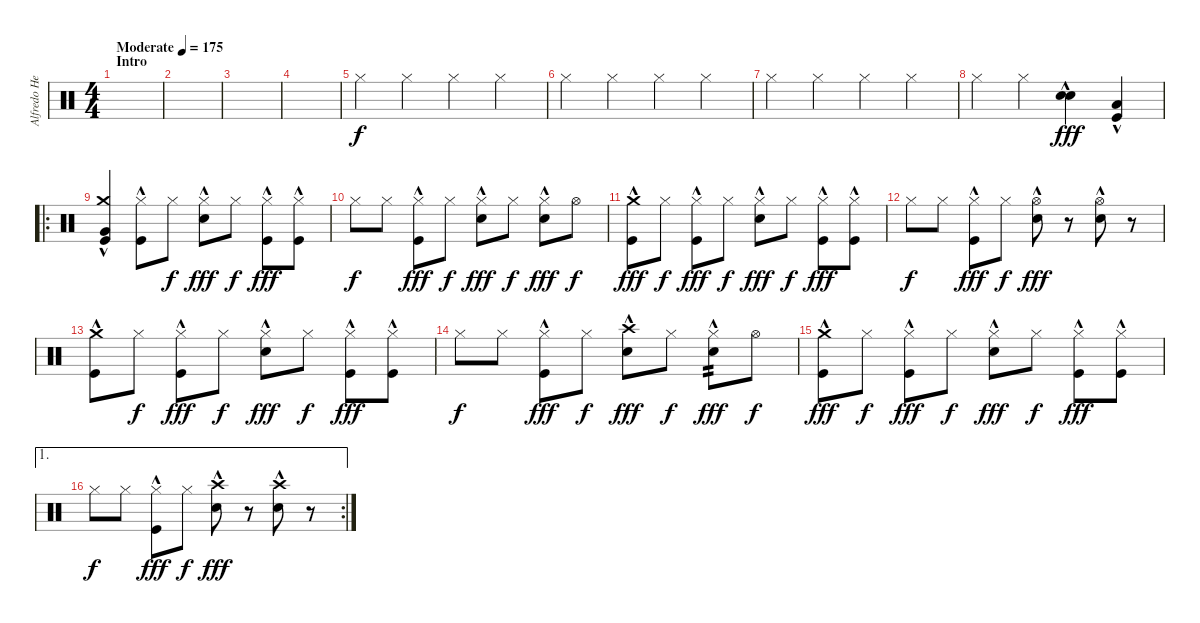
\track ("Alfredo Hernández - Drums" "Alfredo He") {instrument percussion}
\staff {score}
\articulation defaults
\ts (4 4)
\section ("" "Intro")
\tempo (175 "Moderate")
\clef neutral
\ks c
|
|
|
|
"Hi-Hat (closed)".4 "Hi-Hat (closed)".4 "Hi-Hat (closed)".4 "Hi-Hat (closed)".4 |
"Hi-Hat (closed)".4 "Hi-Hat (closed)".4 "Hi-Hat (closed)".4 "Hi-Hat (closed)".4 |
"Hi-Hat (closed)".4 "Hi-Hat (closed)".4 "Hi-Hat (closed)".4 "Hi-Hat (closed)".4 |
"Hi-Hat (closed)".4 "Hi-Hat (closed)".4 ("Snare (hit) 2"{hac} "Snare (hit) 2"{hac}).4{bd 240 dy fff} ("Low Tom (hit)"{hac} "Kick (hit)").4 |
\ro
("Crash medium (hit)" "Very Low Tom (hit)"{hac} "Kick (hit)"{hac}).4 ("Hi-Hat (closed)" "Kick (hit)"{hac}).8 "Hi-Hat (closed)".8{dy f} ("Hi-Hat (closed)" "Snare (hit) 2"{hac}).8{dy fff} "Hi-Hat (closed)".8{dy f} ("Hi-Hat (closed)" "Kick (hit)"{hac}).8{dy fff} ("Hi-Hat (closed)" "Kick (hit)"{hac}).8 |
"Hi-Hat (closed)".8{dy f} "Hi-Hat (closed)".8 ("Hi-Hat (closed)" "Kick (hit)"{hac}).8{dy fff} "Hi-Hat (closed)".8{dy f} ("Hi-Hat (closed)" "Snare (hit) 2"{hac}).8{dy fff} "Hi-Hat (closed)".8{dy f} ("Hi-Hat (closed)" "Snare (hit) 2"{hac}).8{dy fff} "Hi-Hat (open)".8{dy f} |
("Crash medium (hit)" "Kick (hit)"{hac}).8{dy fff} "Hi-Hat (closed)".8{dy f} ("Hi-Hat (closed)" "Kick (hit)"{hac}).8{dy fff} "Hi-Hat (closed)".8{dy f} ("Hi-Hat (closed)" "Snare (hit) 2"{hac}).8{dy fff} "Hi-Hat (closed)".8{dy f} ("Hi-Hat (closed)" "Kick (hit)"{hac}).8{dy fff} ("Hi-Hat (closed)" "Kick (hit)"{hac}).8 |
"Hi-Hat (closed)".8{dy f} "Hi-Hat (closed)".8 ("Hi-Hat (closed)" "Kick (hit)"{hac}).8{dy fff} "Hi-Hat (closed)".8{dy f} ("Hi-Hat (open)" "Snare (hit) 2"{hac}).8{dy fff} r.8 ("Hi-Hat (open)" "Snare (hit) 2"{hac}).8 r.8 |
("Crash medium (hit)" "Kick (hit)"{hac}).8 "Hi-Hat (closed)".8{dy f} ("Hi-Hat (closed)" "Kick (hit)"{hac}).8{dy fff} "Hi-Hat (closed)".8{dy f} ("Hi-Hat (closed)" "Snare (hit) 2"{hac}).8{dy fff} "Hi-Hat (closed)".8{dy f} ("Hi-Hat (closed)" "Kick (hit)"{hac}).8{dy fff} ("Hi-Hat (closed)" "Kick (hit)"{hac}).8 |
"Hi-Hat (closed)".8{dy f} "Hi-Hat (closed)".8 ("Hi-Hat (closed)" "Kick (hit)"{hac}).8{dy fff} "Hi-Hat (closed)".8{dy f} ("Crash high (hit)" "Snare (hit) 2"{hac}).8{dy fff} "Hi-Hat (closed)".8{dy f} ("Hi-Hat (closed)" "Snare (hit) 2"{hac}).8{tp 2 dy fff} "Hi-Hat (open)".8{dy f} |
("Crash medium (hit)" "Kick (hit)"{hac}).8{dy fff} "Hi-Hat (closed)".8{dy f} ("Hi-Hat (closed)" "Kick (hit)"{hac}).8{dy fff} "Hi-Hat (closed)".8{dy f} ("Hi-Hat (closed)" "Snare (hit) 2"{hac}).8{dy fff} "Hi-Hat (closed)".8{dy f} ("Hi-Hat (closed)" "Kick (hit)"{hac}).8{dy fff} ("Hi-Hat (closed)" "Kick (hit)"{hac}).8 |
\ae 1
\rc 2 "Hi-Hat (closed)".8{dy f} "Hi-Hat (closed)".8
("Hi-Hat (closed)" "Kick (hit)"{hac}).8{dy fff} "Hi-Hat (closed)".8{dy f} ("Crash high (hit)" "Snare (hit) 2"{hac}).8{dy fff} r.8 ("Crash high (hit)" "Snare (hit) 2"{hac}).8 r.8
